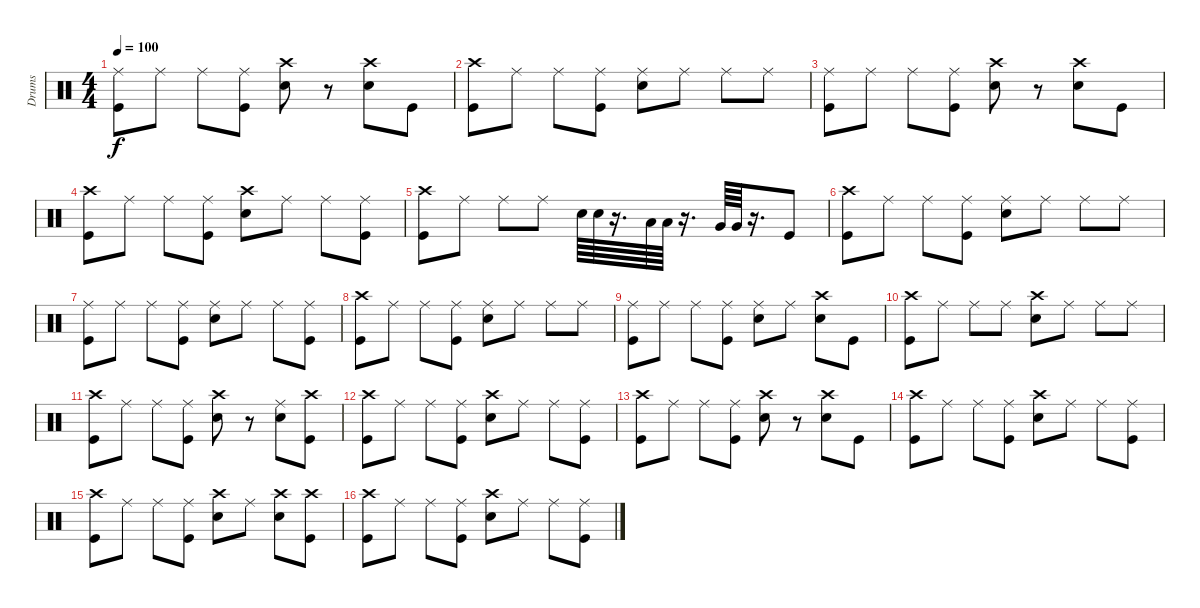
\track ("Drums" "Drums") {instrument percussion}
\staff {score}
\articulation defaults
\ts (4 4)
\tempo 100
\clef neutral
\ks c
("Ride (middle)" "Kick (hit)").8{dy f} "Ride (middle)".8 "Ride (middle)".8 ("Ride (middle)" "Kick (hit)").8 ("Crash high (hit)" "Snare (hit) 2").8 r.8 ("Crash high (hit)" "Snare (hit) 2").8 "Kick (hit)".8 |
("Crash high (hit)" "Kick (hit)").8 "Ride (middle)".8 "Ride (middle)".8 ("Ride (middle)" "Kick (hit)").8 ("Ride (middle)" "Snare (hit) 2").8 "Ride (middle)".8 "Ride (middle)".8 "Ride (middle)".8 |
("Ride (middle)" "Kick (hit)").8 "Ride (middle)".8 "Ride (middle)".8 ("Ride (middle)" "Kick (hit)").8 ("Crash high (hit)" "Snare (hit) 2").8 r.8 ("Crash high (hit)" "Snare (hit) 2").8 "Kick (hit)".8 |
("Crash high (hit)" "Kick (hit)").8 "Ride (middle)".8 "Ride (middle)".8 ("Ride (middle)" "Kick (hit)").8 ("Crash high (hit)" "Snare (hit) 2").8 "Ride (middle)".8 "Ride (middle)".8 ("Ride (middle)" "Kick (hit)").8 |
("Crash high (hit)" "Kick (hit)").8 "Ride (middle)".8 "Ride (middle)".8 "Ride (middle)".8 "Snare (hit) 2".64 "Snare (hit) 2".64 r.16{d} "Low Tom (hit)".64 "Low Tom (hit)".64 r.16{d} "Very Low Tom (hit)".64 "Very Low Tom (hit)".64 r.16{d} "Kick (hit)".8 |
("Crash high (hit)" "Kick (hit)").8 "Ride (middle)".8 "Ride (middle)".8 ("Ride (middle)" "Kick (hit)").8 ("Ride (middle)" "Snare (hit) 2").8 "Ride (middle)".8 "Ride (middle)".8 "Ride (middle)".8 |
("Ride (middle)" "Kick (hit)").8 "Ride (middle)".8 "Ride (middle)".8 ("Ride (middle)" "Kick (hit)").8 ("Ride (middle)" "Snare (hit) 2").8 "Ride (middle)".8 "Ride (middle)".8 ("Ride (middle)" "Kick (hit)").8 |
("Crash high (hit)" "Kick (hit)").8 "Ride (middle)".8 "Ride (middle)".8 ("Ride (middle)" "Kick (hit)").8 ("Ride (middle)" "Snare (hit) 2").8 "Ride (middle)".8 "Ride (middle)".8 "Ride (middle)".8 |
("Ride (middle)" "Kick (hit)").8 "Ride (middle)".8 "Ride (middle)".8 ("Ride (middle)" "Kick (hit)").8 ("Ride (middle)" "Snare (hit) 2").8 "Ride (middle)".8 ("Crash high (hit)" "Snare (hit) 2").8 "Kick (hit)".8 |
("Crash high (hit)" "Kick (hit)").8 "Ride (middle)".8 "Ride (middle)".8 "Ride (middle)".8 ("Crash high (hit)" "Snare (hit) 2").8 "Ride (middle)".8 "Ride (middle)".8 "Ride (middle)".8 |
("Crash high (hit)" "Kick (hit)").8 "Ride (middle)".8 "Ride (middle)".8 ("Ride (middle)" "Kick (hit)").8 ("Crash high (hit)" "Snare (hit) 2").8 r.8 ("Ride (middle)" "Snare (hit) 2").8 ("Crash high (hit)" "Kick (hit)").8 |
("Crash high (hit)" "Kick (hit)").8 "Ride (middle)".8 "Ride (middle)".8 ("Ride (middle)" "Kick (hit)").8 ("Crash high (hit)" "Snare (hit) 2").8 "Ride (middle)".8 "Ride (middle)".8 ("Ride (middle)" "Kick (hit)").8 |
("Crash high (hit)" "Kick (hit)").8 "Ride (middle)".8 "Ride (middle)".8 ("Ride (middle)" "Kick (hit)").8 ("Crash high (hit)" "Snare (hit) 2").8 r.8 ("Crash high (hit)" "Snare (hit) 2").8 "Kick (hit)".8 |
("Crash high (hit)" "Kick (hit)").8 "Ride (middle)".8 "Ride (middle)".8 ("Ride (middle)" "Kick (hit)").8 ("Crash high (hit)" "Snare (hit) 2").8 "Ride (middle)".8 "Ride (middle)".8 ("Ride (middle)" "Kick (hit)").8 |
("Crash high (hit)" "Kick (hit)").8 "Ride (middle)".8 "Ride (middle)".8 ("Ride (middle)" "Kick (hit)").8 ("Crash high (hit)" "Snare (hit) 2").8 "Ride (middle)".8 ("Crash high (hit)" "Snare (hit) 2").8 ("Crash high (hit)" "Kick (hit)").8 |
("Crash high (hit)" "Kick (hit)").8 "Ride (middle)".8 "Ride (middle)".8 ("Ride (middle)" "Kick (hit)").8 ("Crash high (hit)" "Snare (hit) 2").8 "Ride (middle)".8 "Ride (middle)".8 ("Ride (middle)" "Kick (hit)").8
